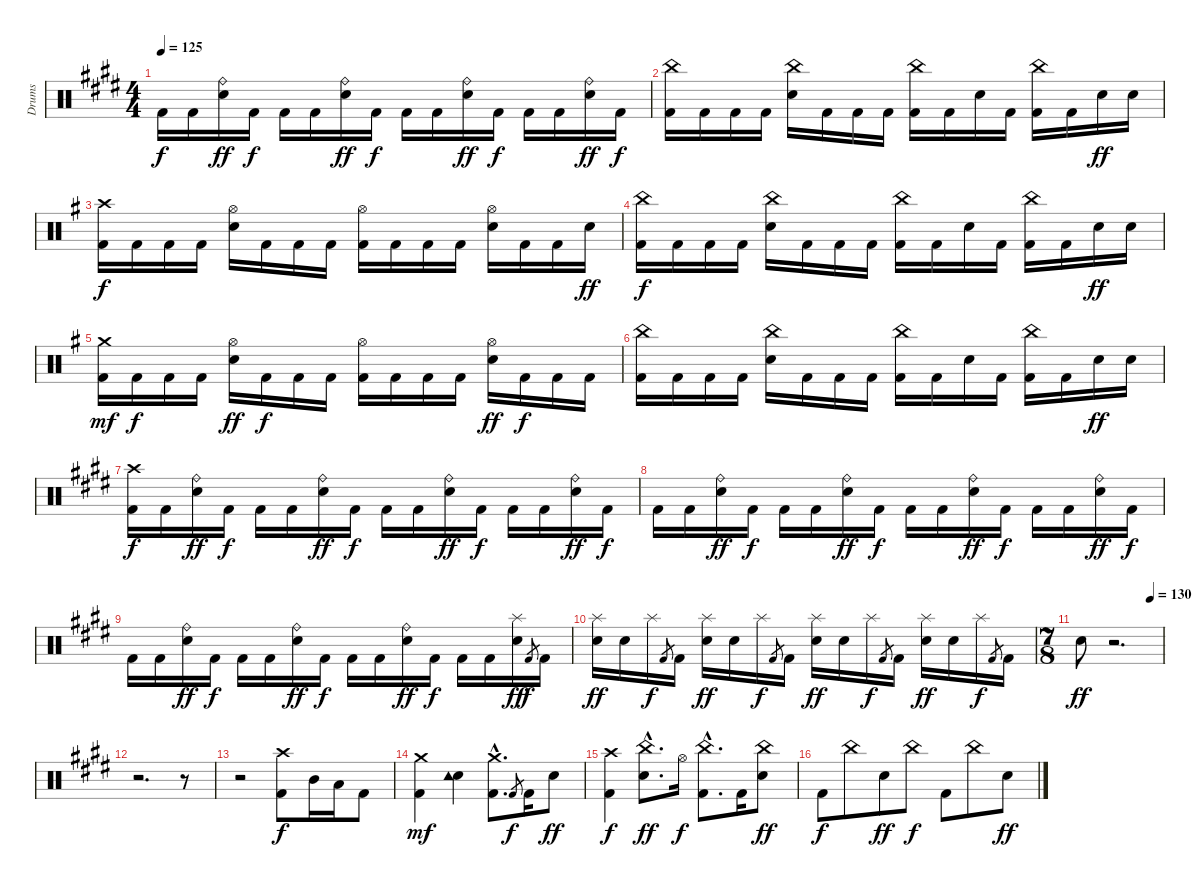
\track ("Drums" "Drums") {instrument percussion}
\staff {score}
\articulation defaults
\ts (4 4)
\tempo 125
\clef neutral
\ks e "Kick (hit) 2".16{dy f} "Kick (hit) 2".16
("Electric Snare (hit)" "Ride (bell)").16{dy ff} "Kick (hit) 2".16{dy f} "Kick (hit) 2".16 "Kick (hit) 2".16 ("Electric Snare (hit)" "Ride (bell)").16{dy ff} "Kick (hit) 2".16{dy f} "Kick (hit) 2".16 "Kick (hit) 2".16 ("Electric Snare (hit)" "Ride (bell)").16{dy ff} "Kick (hit) 2".16{dy f} "Kick (hit) 2".16 "Kick (hit) 2".16 ("Electric Snare (hit)" "Ride (bell)").16{dy ff} "Kick (hit) 2".16{dy f} |
("Kick (hit) 2" "China (hit)").16 "Kick (hit) 2".16 "Kick (hit) 2".16 "Kick (hit) 2".16 ("Electric Snare (hit)" "China (hit)").16 "Kick (hit) 2".16 "Kick (hit) 2".16 "Kick (hit) 2".16 ("Kick (hit) 2" "China (hit)").16 "Kick (hit) 2".16 "Electric Snare (hit)".16 "Kick (hit) 2".16 ("Kick (hit) 2" "China (hit)").16 "Kick (hit) 2".16 "Electric Snare (hit)".16{dy ff} "Electric Snare (hit)".16 |
\ks g
("Kick (hit) 2" "Crash high (hit)").16{dy f} "Kick (hit) 2".16 "Kick (hit) 2".16 "Kick (hit) 2".16 ("Electric Snare (hit)" "Hi-Hat (open)").16 "Kick (hit) 2".16 "Kick (hit) 2".16 "Kick (hit) 2".16 ("Kick (hit) 2" "Hi-Hat (open)").16 "Kick (hit) 2".16 "Kick (hit) 2".16 "Kick (hit) 2".16 ("Electric Snare (hit)" "Hi-Hat (open)").16 "Kick (hit) 2".16 "Kick (hit) 2".16 "Electric Snare (hit)".16{dy ff} |
("Kick (hit) 2" "China (hit)").16{dy f} "Kick (hit) 2".16 "Kick (hit) 2".16 "Kick (hit) 2".16 ("Electric Snare (hit)" "China (hit)").16 "Kick (hit) 2".16 "Kick (hit) 2".16 "Kick (hit) 2".16 ("Kick (hit) 2" "China (hit)").16 "Kick (hit) 2".16 "Electric Snare (hit)".16 "Kick (hit) 2".16 ("Kick (hit) 2" "China (hit)").16 "Kick (hit) 2".16 "Electric Snare (hit)".16{dy ff} "Electric Snare (hit)".16 |
("Kick (hit) 2" "Crash medium (hit)").16{dy mf} "Kick (hit) 2".16{dy f} "Kick (hit) 2".16 "Kick (hit) 2".16 ("Electric Snare (hit)" "Hi-Hat (open)").16{dy ff} "Kick (hit) 2".16{dy f} "Kick (hit) 2".16 "Kick (hit) 2".16 ("Kick (hit) 2" "Hi-Hat (open)").16 "Kick (hit) 2".16 "Kick (hit) 2".16 "Kick (hit) 2".16 ("Electric Snare (hit)" "Hi-Hat (open)").16{dy ff} "Kick (hit) 2".16{dy f} "Kick (hit) 2".16 "Kick (hit) 2".16 |
("Kick (hit) 2" "China (hit)").16 "Kick (hit) 2".16 "Kick (hit) 2".16 "Kick (hit) 2".16 ("Electric Snare (hit)" "China (hit)").16 "Kick (hit) 2".16 "Kick (hit) 2".16 "Kick (hit) 2".16 ("Kick (hit) 2" "China (hit)").16 "Kick (hit) 2".16 "Electric Snare (hit)".16 "Kick (hit) 2".16 ("Kick (hit) 2" "China (hit)").16 "Kick (hit) 2".16 "Electric Snare (hit)".16{dy ff} "Electric Snare (hit)".16 |
\ks e
("Kick (hit) 2" "Crash high (hit)").16{dy f} "Kick (hit) 2".16 ("Electric Snare (hit)" "Ride (bell)").16{dy ff} "Kick (hit) 2".16{dy f} "Kick (hit) 2".16 "Kick (hit) 2".16 ("Electric Snare (hit)" "Ride (bell)").16{dy ff} "Kick (hit) 2".16{dy f} "Kick (hit) 2".16 "Kick (hit) 2".16 ("Electric Snare (hit)" "Ride (bell)").16{dy ff} "Kick (hit) 2".16{dy f} "Kick (hit) 2".16 "Kick (hit) 2".16 ("Electric Snare (hit)" "Ride (bell)").16{dy ff} "Kick (hit) 2".16{dy f} |
"Kick (hit) 2".16 "Kick (hit) 2".16 ("Electric Snare (hit)" "Ride (bell)").16{dy ff} "Kick (hit) 2".16{dy f} "Kick (hit) 2".16 "Kick (hit) 2".16 ("Electric Snare (hit)" "Ride (bell)").16{dy ff} "Kick (hit) 2".16{dy f} "Kick (hit) 2".16 "Kick (hit) 2".16 ("Electric Snare (hit)" "Ride (bell)").16{dy ff} "Kick (hit) 2".16{dy f} "Kick (hit) 2".16 "Kick (hit) 2".16 ("Electric Snare (hit)" "Ride (bell)").16{dy ff} "Kick (hit) 2".16{dy f} |
"Kick (hit) 2".16 "Kick (hit) 2".16 ("Electric Snare (hit)" "Ride (bell)").16{dy ff} "Kick (hit) 2".16{dy f} "Kick (hit) 2".16 "Kick (hit) 2".16 ("Electric Snare (hit)" "Ride (bell)").16{dy ff} "Kick (hit) 2".16{dy f} "Kick (hit) 2".16 "Kick (hit) 2".16 ("Electric Snare (hit)" "Ride (bell)").16{dy ff} "Kick (hit) 2".16{dy f} "Kick (hit) 2".16 "Kick (hit) 2".16 ("Electric Snare (hit)" "Splash (hit)").16{dy ff} "Kick (hit) 2".8{gr dy f} "Kick (hit) 2".16 |
("Electric Snare (hit)" "Splash (hit)").16{dy ff} "Electric Snare (hit)".16 "Splash (hit)".16{dy f} "Kick (hit) 2".8{gr} "Kick (hit) 2".16 ("Electric Snare (hit)" "Splash (hit)").16{dy ff} "Electric Snare (hit)".16 "Splash (hit)".16{dy f} "Kick (hit) 2".8{gr} "Kick (hit) 2".16 ("Electric Snare (hit)" "Splash (hit)").16{dy ff} "Electric Snare (hit)".16 "Splash (hit)".16{dy f} "Kick (hit) 2".8{gr} "Kick (hit) 2".16 ("Electric Snare (hit)" "Splash (hit)").16{dy ff} "Electric Snare (hit)".16 "Splash (hit)".16{dy f} "Kick (hit) 2".8{gr} "Kick (hit) 2".16 |
\ts (7 8)
\tempo (130 0.8571428571428571)
"Electric Snare (hit)".8{dy ff} r.2{d} |
r.2{d} r.8 |
r.2 ("Kick (hit) 2" "Crash high (hit)").8{dy f} "Mid Tom (hit)".16 "Low Tom (hit)".16 "Kick (hit) 2".8 |
("Kick (hit) 2" "Crash medium (hit)").4{dy mf} ("Electric Snare (hit)" "Tambourine (hit)").4 ("Kick (hit) 2"{hac} "Crash medium (hit)").8{d} "Kick (hit) 2".8{gr dy f} "Kick (hit) 2".16 "Electric Snare (hit)".8{dy ff} |
("Kick (hit) 2" "Crash high (hit)").4{dy f} ("Electric Snare (hit)"{hac} "China (hit)"{hac}).8{d dy ff} "Hi-Hat (open)".16{dy f} ("Kick (hit) 2"{hac} "China (hit)"{hac}).8{d} "Kick (hit) 2".16 ("Electric Snare (hit)" "China (hit)").8{dy ff} |
"Kick (hit) 2".8{dy f} "China (hit)".8 "Electric Snare (hit)".8{dy ff} "China (hit)".8{dy f} "Kick (hit) 2".8 "China (hit)".8 "Electric Snare (hit)".8{dy ff}
